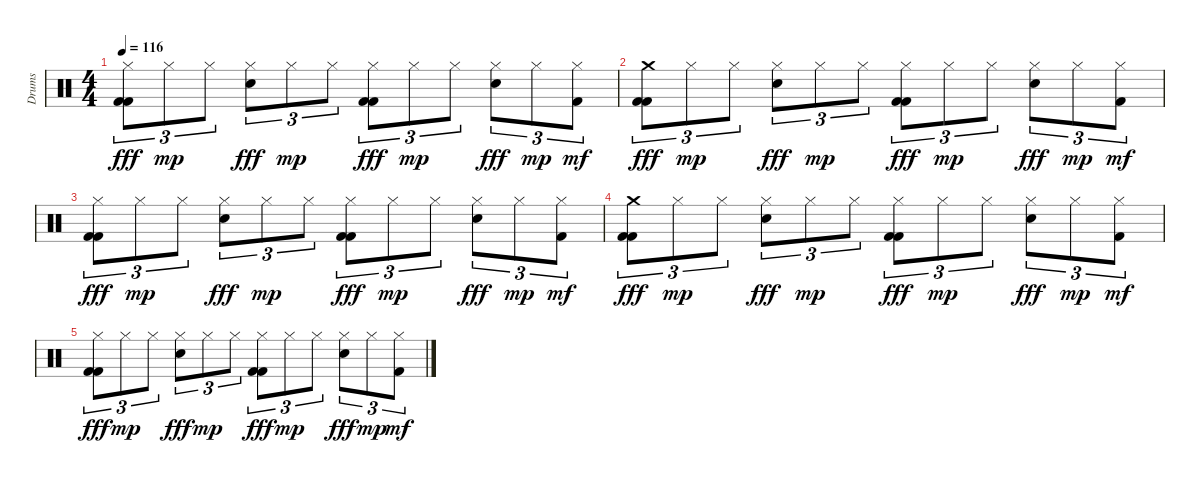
\track ("Drums" "Drums") {instrument percussion}
\staff {score}
\articulation defaults
\ts (4 4)
\tempo 116
\clef neutral
\ks aminor
("Hi-Hat (closed)" "Kick (hit) 2" "Kick (hit) 2").8{tu (3 2) dy fff} "Hi-Hat (closed)".8{tu (3 2) dy mp} "Hi-Hat (closed)".8{tu (3 2)} ("Hi-Hat (closed)" "Snare (hit) 2").8{tu (3 2) dy fff} "Hi-Hat (closed)".8{tu (3 2) dy mp} "Hi-Hat (closed)".8{tu (3 2)} ("Hi-Hat (closed)" "Kick (hit) 2" "Kick (hit) 2").8{tu (3 2) dy fff} "Hi-Hat (closed)".8{tu (3 2) dy mp} "Hi-Hat (closed)".8{tu (3 2)} ("Hi-Hat (closed)" "Snare (hit) 2").8{tu (3 2) dy fff} "Hi-Hat (closed)".8{tu (3 2) dy mp} ("Hi-Hat (closed)" "Kick (hit) 2").8{tu (3 2) dy mf} |
("Crash medium (hit)" "Kick (hit) 2" "Kick (hit) 2").8{tu (3 2) dy fff} "Hi-Hat (closed)".8{tu (3 2) dy mp} "Hi-Hat (closed)".8{tu (3 2)} ("Hi-Hat (closed)" "Snare (hit) 2").8{tu (3 2) dy fff} "Hi-Hat (closed)".8{tu (3 2) dy mp} "Hi-Hat (closed)".8{tu (3 2)} ("Hi-Hat (closed)" "Kick (hit) 2" "Kick (hit) 2").8{tu (3 2) dy fff} "Hi-Hat (closed)".8{tu (3 2) dy mp} "Hi-Hat (closed)".8{tu (3 2)} ("Hi-Hat (closed)" "Snare (hit) 2").8{tu (3 2) dy fff} "Hi-Hat (closed)".8{tu (3 2) dy mp} ("Hi-Hat (closed)" "Kick (hit) 2").8{tu (3 2) dy mf} |
("Hi-Hat (closed)" "Kick (hit) 2" "Kick (hit) 2").8{tu (3 2) dy fff} "Hi-Hat (closed)".8{tu (3 2) dy mp} "Hi-Hat (closed)".8{tu (3 2)} ("Hi-Hat (closed)" "Snare (hit) 2").8{tu (3 2) dy fff} "Hi-Hat (closed)".8{tu (3 2) dy mp} "Hi-Hat (closed)".8{tu (3 2)} ("Hi-Hat (closed)" "Kick (hit) 2" "Kick (hit) 2").8{tu (3 2) dy fff} "Hi-Hat (closed)".8{tu (3 2) dy mp} "Hi-Hat (closed)".8{tu (3 2)} ("Hi-Hat (closed)" "Snare (hit) 2").8{tu (3 2) dy fff} "Hi-Hat (closed)".8{tu (3 2) dy mp} ("Hi-Hat (closed)" "Kick (hit) 2").8{tu (3 2) dy mf} |
("Crash medium (hit)" "Kick (hit) 2" "Kick (hit) 2").8{tu (3 2) dy fff} "Hi-Hat (closed)".8{tu (3 2) dy mp} "Hi-Hat (closed)".8{tu (3 2)} ("Hi-Hat (closed)" "Snare (hit) 2").8{tu (3 2) dy fff} "Hi-Hat (closed)".8{tu (3 2) dy mp} "Hi-Hat (closed)".8{tu (3 2)} ("Hi-Hat (closed)" "Kick (hit) 2" "Kick (hit) 2").8{tu (3 2) dy fff} "Hi-Hat (closed)".8{tu (3 2) dy mp} "Hi-Hat (closed)".8{tu (3 2)} ("Hi-Hat (closed)" "Snare (hit) 2").8{tu (3 2) dy fff} "Hi-Hat (closed)".8{tu (3 2) dy mp} ("Hi-Hat (closed)" "Kick (hit) 2").8{tu (3 2) dy mf} |
("Hi-Hat (closed)" "Kick (hit) 2" "Kick (hit) 2").8{tu (3 2) dy fff} "Hi-Hat (closed)".8{tu (3 2) dy mp} "Hi-Hat (closed)".8{tu (3 2)} ("Hi-Hat (closed)" "Snare (hit) 2").8{tu (3 2) dy fff} "Hi-Hat (closed)".8{tu (3 2) dy mp} "Hi-Hat (closed)".8{tu (3 2)} ("Hi-Hat (closed)" "Kick (hit) 2" "Kick (hit) 2").8{tu (3 2) dy fff} "Hi-Hat (closed)".8{tu (3 2) dy mp} "Hi-Hat (closed)".8{tu (3 2)} ("Hi-Hat (closed)" "Snare (hit) 2").8{tu (3 2) dy fff} "Hi-Hat (closed)".8{tu (3 2) dy mp} ("Hi-Hat (closed)" "Kick (hit) 2").8{tu (3 2) dy mf}
